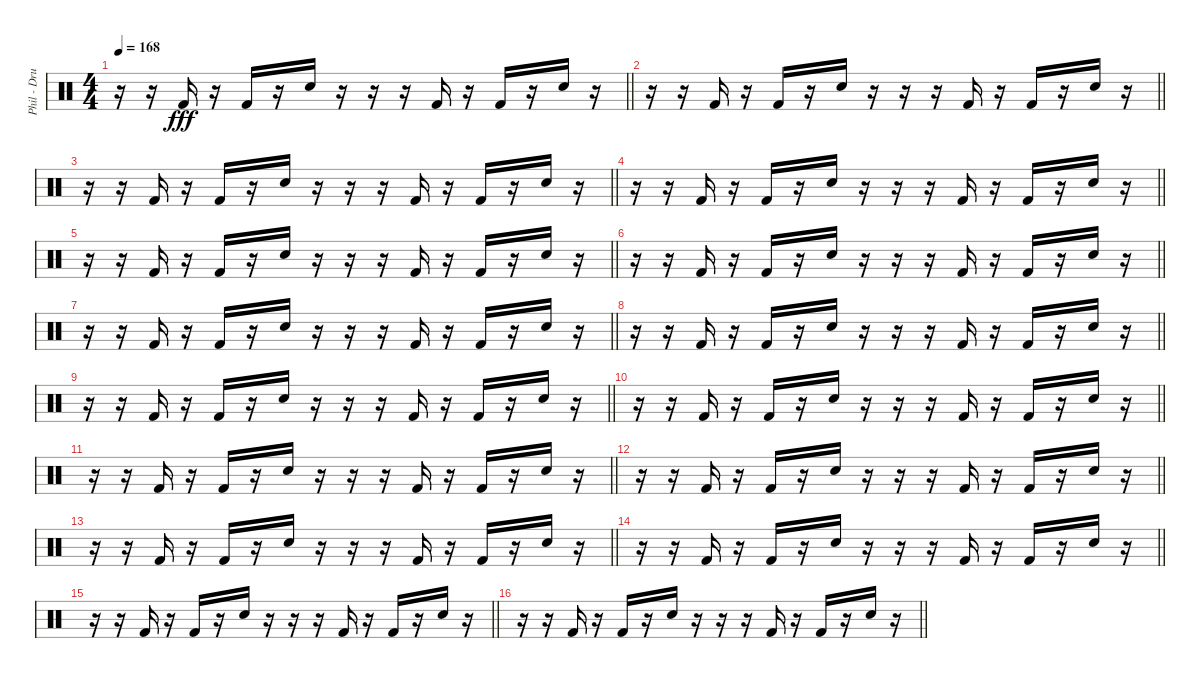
\track ("Phil - Drums" "Phil - Dru") {instrument percussion}
\staff {score}
\articulation defaults
\ts (4 4)
\tempo 168
\clef neutral
\barLineRight lightlight
\ks c
r.16{dy fff} r.16 "Kick (hit) 2".16 r.16 "Kick (hit) 2".16 r.16 "Electric Snare (hit)".16 r.16 r.16 r.16 "Kick (hit) 2".16 r.16 "Kick (hit) 2".16 r.16 "Electric Snare (hit)".16 r.16 |
\barLineRight lightlight
r.16 r.16 "Kick (hit) 2".16 r.16 "Kick (hit) 2".16 r.16 "Electric Snare (hit)".16 r.16 r.16 r.16 "Kick (hit) 2".16 r.16 "Kick (hit) 2".16 r.16 "Electric Snare (hit)".16 r.16 |
\barLineRight lightlight
r.16 r.16 "Kick (hit) 2".16 r.16 "Kick (hit) 2".16 r.16 "Electric Snare (hit)".16 r.16 r.16 r.16 "Kick (hit) 2".16 r.16 "Kick (hit) 2".16 r.16 "Electric Snare (hit)".16 r.16 |
\barLineRight lightlight
r.16 r.16 "Kick (hit) 2".16 r.16 "Kick (hit) 2".16 r.16 "Electric Snare (hit)".16 r.16 r.16 r.16 "Kick (hit) 2".16 r.16 "Kick (hit) 2".16 r.16 "Electric Snare (hit)".16 r.16 |
\barLineRight lightlight
r.16 r.16 "Kick (hit) 2".16 r.16 "Kick (hit) 2".16 r.16 "Electric Snare (hit)".16 r.16 r.16 r.16 "Kick (hit) 2".16 r.16 "Kick (hit) 2".16 r.16 "Electric Snare (hit)".16 r.16 |
\barLineRight lightlight
r.16 r.16 "Kick (hit) 2".16 r.16 "Kick (hit) 2".16 r.16 "Electric Snare (hit)".16 r.16 r.16 r.16 "Kick (hit) 2".16 r.16 "Kick (hit) 2".16 r.16 "Electric Snare (hit)".16 r.16 |
\barLineRight lightlight
r.16 r.16 "Kick (hit) 2".16 r.16 "Kick (hit) 2".16 r.16 "Electric Snare (hit)".16 r.16 r.16 r.16 "Kick (hit) 2".16 r.16 "Kick (hit) 2".16 r.16 "Electric Snare (hit)".16 r.16 |
\barLineRight lightlight
r.16 r.16 "Kick (hit) 2".16 r.16 "Kick (hit) 2".16 r.16 "Electric Snare (hit)".16 r.16 r.16 r.16 "Kick (hit) 2".16 r.16 "Kick (hit) 2".16 r.16 "Electric Snare (hit)".16 r.16 |
\barLineRight lightlight
r.16 r.16 "Kick (hit) 2".16 r.16 "Kick (hit) 2".16 r.16 "Electric Snare (hit)".16 r.16 r.16 r.16 "Kick (hit) 2".16 r.16 "Kick (hit) 2".16 r.16 "Electric Snare (hit)".16 r.16 |
\barLineRight lightlight
r.16 r.16 "Kick (hit) 2".16 r.16 "Kick (hit) 2".16 r.16 "Electric Snare (hit)".16 r.16 r.16 r.16 "Kick (hit) 2".16 r.16 "Kick (hit) 2".16 r.16 "Electric Snare (hit)".16 r.16 |
\barLineRight lightlight
r.16 r.16 "Kick (hit) 2".16 r.16 "Kick (hit) 2".16 r.16 "Electric Snare (hit)".16 r.16 r.16 r.16 "Kick (hit) 2".16 r.16 "Kick (hit) 2".16 r.16 "Electric Snare (hit)".16 r.16 |
\barLineRight lightlight
r.16 r.16 "Kick (hit) 2".16 r.16 "Kick (hit) 2".16 r.16 "Electric Snare (hit)".16 r.16 r.16 r.16 "Kick (hit) 2".16 r.16 "Kick (hit) 2".16 r.16 "Electric Snare (hit)".16 r.16 |
\barLineRight lightlight
r.16 r.16 "Kick (hit) 2".16 r.16 "Kick (hit) 2".16 r.16 "Electric Snare (hit)".16 r.16 r.16 r.16 "Kick (hit) 2".16 r.16 "Kick (hit) 2".16 r.16 "Electric Snare (hit)".16 r.16 |
\barLineRight lightlight
r.16 r.16 "Kick (hit) 2".16 r.16 "Kick (hit) 2".16 r.16 "Electric Snare (hit)".16 r.16 r.16 r.16 "Kick (hit) 2".16 r.16 "Kick (hit) 2".16 r.16 "Electric Snare (hit)".16 r.16 |
\barLineRight lightlight
r.16 r.16 "Kick (hit) 2".16 r.16 "Kick (hit) 2".16 r.16 "Electric Snare (hit)".16 r.16 r.16 r.16 "Kick (hit) 2".16 r.16 "Kick (hit) 2".16 r.16 "Electric Snare (hit)".16 r.16 |
\barLineRight lightlight
r.16 r.16 "Kick (hit) 2".16 r.16 "Kick (hit) 2".16 r.16 "Electric Snare (hit)".16 r.16 r.16 r.16 "Kick (hit) 2".16 r.16 "Kick (hit) 2".16 r.16 "Electric Snare (hit)".16 r.16
